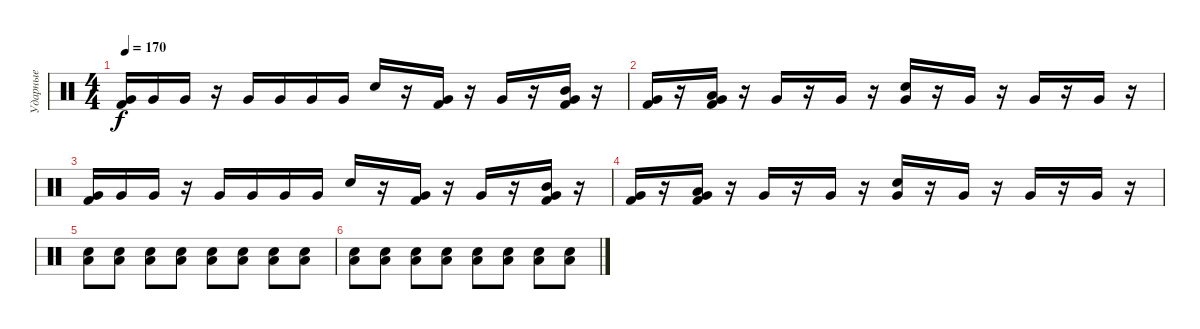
\track ("Ударные" "Ударные") {instrument percussion}
\staff
\articulation defaults
\ts (4 4)
\tempo 170
\clef neutral
\ks c
("Very Low Tom (hit)" "Kick (hit) 2").16{dy f} "Very Low Tom (hit)".16 "Very Low Tom (hit)".16 r.16 "Very Low Tom (hit)".16 "Very Low Tom (hit)".16 "Very Low Tom (hit)".16 "Very Low Tom (hit)".16 "Electric Snare (hit)".16 r.16 ("Very Low Tom (hit)" "Kick (hit) 2").16 r.16 "Very Low Tom (hit)".16 r.16 ("Mid Tom (hit)" "Very Low Tom (hit)" "Kick (hit) 2").16 r.16 |
("Very Low Tom (hit)" "Kick (hit) 2").16 r.16 ("Low Tom (hit)" "Very Low Tom (hit)" "Kick (hit) 2").16 r.16 "Very Low Tom (hit)".16 r.16 "Very Low Tom (hit)".16 r.16 ("Very Low Tom (hit)" "Electric Snare (hit)").16 r.16 "Very Low Tom (hit)".16 r.16 "Very Low Tom (hit)".16 r.16 "Very Low Tom (hit)".16 r.16 |
("Very Low Tom (hit)" "Kick (hit) 2").16 "Very Low Tom (hit)".16 "Very Low Tom (hit)".16 r.16 "Very Low Tom (hit)".16 "Very Low Tom (hit)".16 "Very Low Tom (hit)".16 "Very Low Tom (hit)".16 "Electric Snare (hit)".16 r.16 ("Very Low Tom (hit)" "Kick (hit) 2").16 r.16 "Very Low Tom (hit)".16 r.16 ("Mid Tom (hit)" "Very Low Tom (hit)" "Kick (hit) 2").16 r.16 |
("Very Low Tom (hit)" "Kick (hit) 2").16 r.16 ("Low Tom (hit)" "Very Low Tom (hit)" "Kick (hit) 2").16 r.16 "Very Low Tom (hit)".16 r.16 "Very Low Tom (hit)".16 r.16 ("Very Low Tom (hit)" "Electric Snare (hit)").16 r.16 "Very Low Tom (hit)".16 r.16 "Very Low Tom (hit)".16 r.16 "Very Low Tom (hit)".16 r.16 |
("Low Tom (hit)" "Electric Snare (hit)").8 ("Low Tom (hit)" "Electric Snare (hit)").8 ("Low Tom (hit)" "Electric Snare (hit)").8 ("Low Tom (hit)" "Electric Snare (hit)").8 ("Low Tom (hit)" "Electric Snare (hit)").8 ("Low Tom (hit)" "Electric Snare (hit)").8 ("Low Tom (hit)" "Electric Snare (hit)").8 ("Low Tom (hit)" "Electric Snare (hit)").8 |
("Low Tom (hit)" "Electric Snare (hit)").8 ("Low Tom (hit)" "Electric Snare (hit)").8 ("Low Tom (hit)" "Electric Snare (hit)").8 ("Low Tom (hit)" "Electric Snare (hit)").8 ("Low Tom (hit)" "Electric Snare (hit)").8 ("Low Tom (hit)" "Electric Snare (hit)").8 ("Low Tom (hit)" "Electric Snare (hit)").8 ("Low Tom (hit)" "Electric Snare (hit)").8
